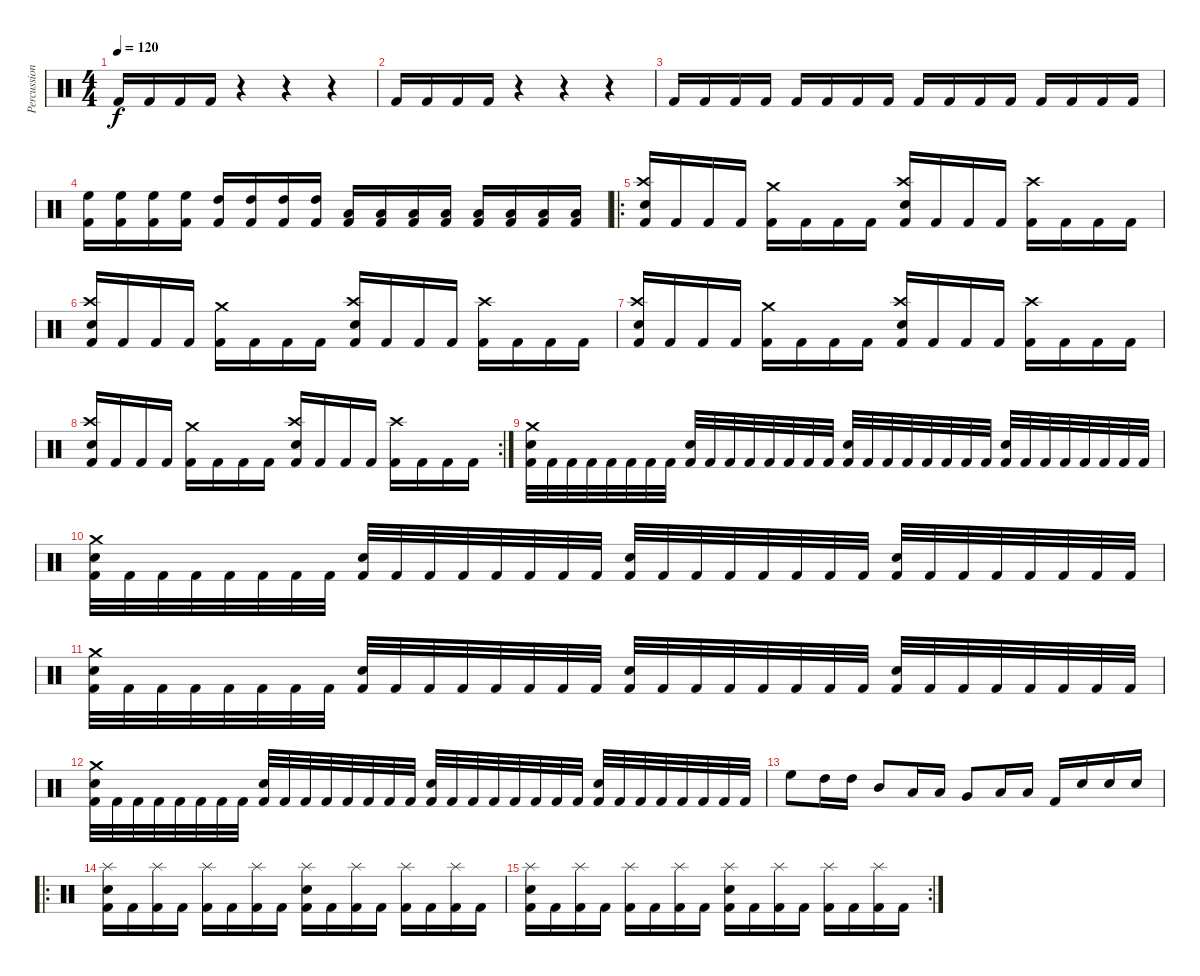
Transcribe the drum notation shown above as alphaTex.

\track ("Percussion" "Percussion") {instrument percussion}
\staff {score}
\articulation defaults
\ts (4 4)
\tempo 120
\clef neutral
\ks c "Kick (hit) 2".16{dy f} "Kick (hit) 2".16 "Kick (hit) 2".16 "Kick (hit) 2".16
r.4 r.4 r.4 |
"Kick (hit) 2".16 "Kick (hit) 2".16 "Kick (hit) 2".16 "Kick (hit) 2".16 r.4 r.4 r.4 |
"Kick (hit) 2".16 "Kick (hit) 2".16 "Kick (hit) 2".16 "Kick (hit) 2".16 "Kick (hit) 2".16 "Kick (hit) 2".16 "Kick (hit) 2".16 "Kick (hit) 2".16 "Kick (hit) 2".16 "Kick (hit) 2".16 "Kick (hit) 2".16 "Kick (hit) 2".16 "Kick (hit) 2".16 "Kick (hit) 2".16 "Kick (hit) 2".16 "Kick (hit) 2".16 |
("High Floor Tom (hit)" "Kick (hit) 2").16 ("High Floor Tom (hit)" "Kick (hit) 2").16 ("High Floor Tom (hit)" "Kick (hit) 2").16 ("High Floor Tom (hit)" "Kick (hit) 2").16 ("High Tom (hit)" "Kick (hit) 2").16 ("High Tom (hit)" "Kick (hit) 2").16 ("High Tom (hit)" "Kick (hit) 2").16 ("High Tom (hit)" "Kick (hit) 2").16 ("Low Tom (hit)" "Kick (hit) 2").16 ("Low Tom (hit)" "Kick (hit) 2").16 ("Low Tom (hit)" "Kick (hit) 2").16 ("Low Tom (hit)" "Kick (hit) 2").16 ("Low Floor Tom (hit)" "Kick (hit) 2").16 ("Low Floor Tom (hit)" "Kick (hit) 2").16 ("Low Floor Tom (hit)" "Kick (hit) 2").16 ("Low Floor Tom (hit)" "Kick (hit) 2").16 |
\ro
("Crash high (hit)" "Snare (hit) 2" "Kick (hit) 2").16 "Kick (hit) 2".16 "Kick (hit) 2".16 "Kick (hit) 2".16 ("Crash medium (hit)" "Kick (hit) 2").16 "Kick (hit) 2".16 "Kick (hit) 2".16 "Kick (hit) 2".16 ("Crash high (hit)" "Snare (hit) 2" "Kick (hit) 2").16 "Kick (hit) 2".16 "Kick (hit) 2".16 "Kick (hit) 2".16 ("Crash high (hit)" "Kick (hit) 2").16 "Kick (hit) 2".16 "Kick (hit) 2".16 "Kick (hit) 2".16 |
("Crash high (hit)" "Snare (hit) 2" "Kick (hit) 2").16 "Kick (hit) 2".16 "Kick (hit) 2".16 "Kick (hit) 2".16 ("Crash medium (hit)" "Kick (hit) 2").16 "Kick (hit) 2".16 "Kick (hit) 2".16 "Kick (hit) 2".16 ("Crash high (hit)" "Snare (hit) 2" "Kick (hit) 2").16 "Kick (hit) 2".16 "Kick (hit) 2".16 "Kick (hit) 2".16 ("Crash high (hit)" "Kick (hit) 2").16 "Kick (hit) 2".16 "Kick (hit) 2".16 "Kick (hit) 2".16 |
("Crash high (hit)" "Snare (hit) 2" "Kick (hit) 2").16 "Kick (hit) 2".16 "Kick (hit) 2".16 "Kick (hit) 2".16 ("Crash medium (hit)" "Kick (hit) 2").16 "Kick (hit) 2".16 "Kick (hit) 2".16 "Kick (hit) 2".16 ("Crash high (hit)" "Snare (hit) 2" "Kick (hit) 2").16 "Kick (hit) 2".16 "Kick (hit) 2".16 "Kick (hit) 2".16 ("Crash high (hit)" "Kick (hit) 2").16 "Kick (hit) 2".16 "Kick (hit) 2".16 "Kick (hit) 2".16 |
\rc 2
("Crash high (hit)" "Snare (hit) 2" "Kick (hit) 2").16 "Kick (hit) 2".16 "Kick (hit) 2".16 "Kick (hit) 2".16 ("Crash medium (hit)" "Kick (hit) 2").16 "Kick (hit) 2".16 "Kick (hit) 2".16 "Kick (hit) 2".16 ("Crash high (hit)" "Snare (hit) 2" "Kick (hit) 2").16 "Kick (hit) 2".16 "Kick (hit) 2".16 "Kick (hit) 2".16 ("Crash high (hit)" "Kick (hit) 2").16 "Kick (hit) 2".16 "Kick (hit) 2".16 "Kick (hit) 2".16 |
("Crash medium (hit)" "Snare (hit) 2" "Kick (hit) 2").32 "Kick (hit) 2".32 "Kick (hit) 2".32 "Kick (hit) 2".32 "Kick (hit) 2".32 "Kick (hit) 2".32 "Kick (hit) 2".32 "Kick (hit) 2".32 ("Snare (hit) 2" "Kick (hit) 2").32 "Kick (hit) 2".32 "Kick (hit) 2".32 "Kick (hit) 2".32 "Kick (hit) 2".32 "Kick (hit) 2".32 "Kick (hit) 2".32 "Kick (hit) 2".32 ("Snare (hit) 2" "Kick (hit) 2").32 "Kick (hit) 2".32 "Kick (hit) 2".32 "Kick (hit) 2".32 "Kick (hit) 2".32 "Kick (hit) 2".32 "Kick (hit) 2".32 "Kick (hit) 2".32 ("Snare (hit) 2" "Kick (hit) 2").32 "Kick (hit) 2".32 "Kick (hit) 2".32 "Kick (hit) 2".32 "Kick (hit) 2".32 "Kick (hit) 2".32 "Kick (hit) 2".32 "Kick (hit) 2".32 |
("Crash medium (hit)" "Snare (hit) 2" "Kick (hit) 2").32 "Kick (hit) 2".32 "Kick (hit) 2".32 "Kick (hit) 2".32 "Kick (hit) 2".32 "Kick (hit) 2".32 "Kick (hit) 2".32 "Kick (hit) 2".32 ("Snare (hit) 2" "Kick (hit) 2").32 "Kick (hit) 2".32 "Kick (hit) 2".32 "Kick (hit) 2".32 "Kick (hit) 2".32 "Kick (hit) 2".32 "Kick (hit) 2".32 "Kick (hit) 2".32 ("Snare (hit) 2" "Kick (hit) 2").32 "Kick (hit) 2".32 "Kick (hit) 2".32 "Kick (hit) 2".32 "Kick (hit) 2".32 "Kick (hit) 2".32 "Kick (hit) 2".32 "Kick (hit) 2".32 ("Snare (hit) 2" "Kick (hit) 2").32 "Kick (hit) 2".32 "Kick (hit) 2".32 "Kick (hit) 2".32 "Kick (hit) 2".32 "Kick (hit) 2".32 "Kick (hit) 2".32 "Kick (hit) 2".32 |
("Crash medium (hit)" "Snare (hit) 2" "Kick (hit) 2").32 "Kick (hit) 2".32 "Kick (hit) 2".32 "Kick (hit) 2".32 "Kick (hit) 2".32 "Kick (hit) 2".32 "Kick (hit) 2".32 "Kick (hit) 2".32 ("Snare (hit) 2" "Kick (hit) 2").32 "Kick (hit) 2".32 "Kick (hit) 2".32 "Kick (hit) 2".32 "Kick (hit) 2".32 "Kick (hit) 2".32 "Kick (hit) 2".32 "Kick (hit) 2".32 ("Snare (hit) 2" "Kick (hit) 2").32 "Kick (hit) 2".32 "Kick (hit) 2".32 "Kick (hit) 2".32 "Kick (hit) 2".32 "Kick (hit) 2".32 "Kick (hit) 2".32 "Kick (hit) 2".32 ("Snare (hit) 2" "Kick (hit) 2").32 "Kick (hit) 2".32 "Kick (hit) 2".32 "Kick (hit) 2".32 "Kick (hit) 2".32 "Kick (hit) 2".32 "Kick (hit) 2".32 "Kick (hit) 2".32 |
("Crash medium (hit)" "Snare (hit) 2" "Kick (hit) 2").32 "Kick (hit) 2".32 "Kick (hit) 2".32 "Kick (hit) 2".32 "Kick (hit) 2".32 "Kick (hit) 2".32 "Kick (hit) 2".32 "Kick (hit) 2".32 ("Snare (hit) 2" "Kick (hit) 2").32 "Kick (hit) 2".32 "Kick (hit) 2".32 "Kick (hit) 2".32 "Kick (hit) 2".32 "Kick (hit) 2".32 "Kick (hit) 2".32 "Kick (hit) 2".32 ("Snare (hit) 2" "Kick (hit) 2").32 "Kick (hit) 2".32 "Kick (hit) 2".32 "Kick (hit) 2".32 "Kick (hit) 2".32 "Kick (hit) 2".32 "Kick (hit) 2".32 "Kick (hit) 2".32 ("Snare (hit) 2" "Kick (hit) 2").32 "Kick (hit) 2".32 "Kick (hit) 2".32 "Kick (hit) 2".32 "Kick (hit) 2".32 "Kick (hit) 2".32 "Kick (hit) 2".32 "Kick (hit) 2".32 |
"High Floor Tom (hit)".8 "High Tom (hit)".16 "High Tom (hit)".16 "Mid Tom (hit)".8 "Low Tom (hit)".16 "Low Tom (hit)".16 "Very Low Tom (hit)".8 "Low Floor Tom (hit)".16 "Low Floor Tom (hit)".16 "Kick (hit) 2".16 "Snare (hit) 2".16 "Snare (hit) 2".16 "Snare (hit) 2".16 |
\ro
("Splash (hit)" "Snare (hit) 2" "Kick (hit) 2").16 "Kick (hit) 2".16 ("Splash (hit)" "Kick (hit) 2").16 "Kick (hit) 2".16 ("Splash (hit)" "Kick (hit) 2").16 "Kick (hit) 2".16 ("Splash (hit)" "Kick (hit) 2").16 "Kick (hit) 2".16 ("Splash (hit)" "Snare (hit) 2" "Kick (hit) 2").16 "Kick (hit) 2".16 ("Splash (hit)" "Kick (hit) 2").16 "Kick (hit) 2".16 ("Splash (hit)" "Kick (hit) 2").16 "Kick (hit) 2".16 ("Splash (hit)" "Kick (hit) 2").16 "Kick (hit) 2".16 |
\rc 2
("Splash (hit)" "Snare (hit) 2" "Kick (hit) 2").16 "Kick (hit) 2".16 ("Splash (hit)" "Kick (hit) 2").16 "Kick (hit) 2".16 ("Splash (hit)" "Kick (hit) 2").16 "Kick (hit) 2".16 ("Splash (hit)" "Kick (hit) 2").16 "Kick (hit) 2".16 ("Splash (hit)" "Snare (hit) 2" "Kick (hit) 2").16 "Kick (hit) 2".16 ("Splash (hit)" "Kick (hit) 2").16 "Kick (hit) 2".16 ("Splash (hit)" "Kick (hit) 2").16 "Kick (hit) 2".16 ("Splash (hit)" "Kick (hit) 2").16 "Kick (hit) 2".16
